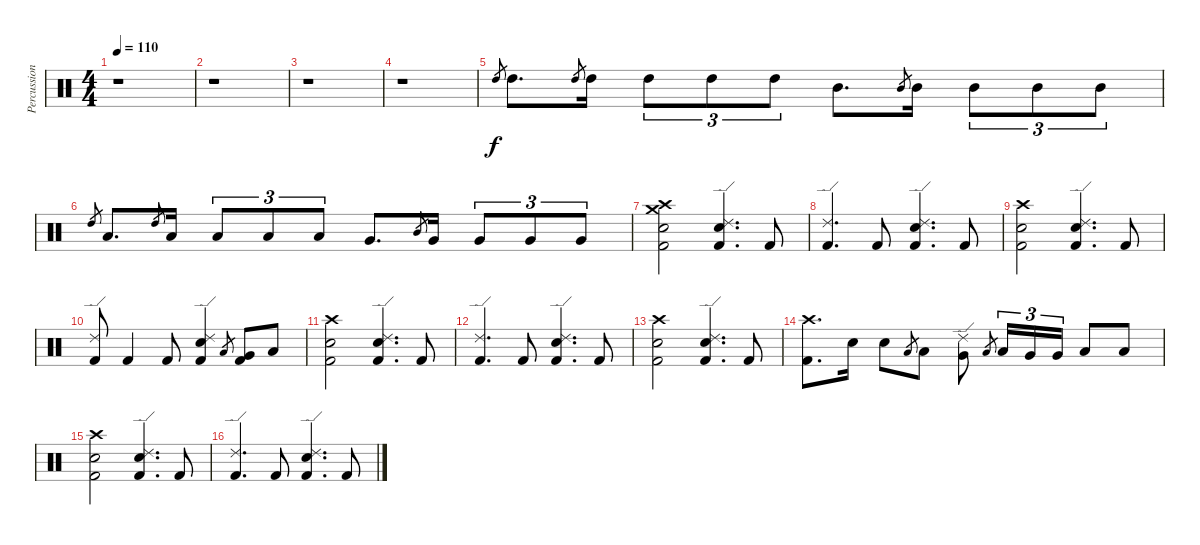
\track ("Percussion" "Percussion") {instrument percussion}
\staff {score}
\articulation defaults
\ts (4 4)
\tempo 110
\clef neutral
\ks c
r.1{dy f} |
r.1 |
r.1 |
r.1 |
"High Tom (hit)".8{gr} "High Tom (hit)".8{d} "High Tom (hit)".8{gr} "High Tom (hit)".16 "High Tom (hit)".8{tu (3 2)} "High Tom (hit)".8{tu (3 2)} "High Tom (hit)".8{tu (3 2)} "Mid Tom (hit)".8{d} "Mid Tom (hit)".8{gr} "Mid Tom (hit)".16 "Mid Tom (hit)".8{tu (3 2)} "Mid Tom (hit)".8{tu (3 2)} "Mid Tom (hit)".8{tu (3 2)} |
"High Tom (hit)".8{gr} "Low Tom (hit)".8{d} "High Tom (hit)".8{gr} "Low Tom (hit)".16 "Low Tom (hit)".8{tu (3 2)} "Low Tom (hit)".8{tu (3 2)} "Low Tom (hit)".8{tu (3 2)} "Very Low Tom (hit)".8{d} "Mid Tom (hit)".8{gr} "Very Low Tom (hit)".16 "Very Low Tom (hit)".8{tu (3 2)} "Very Low Tom (hit)".8{tu (3 2)} "Very Low Tom (hit)".8{tu (3 2)} |
("Crash high (hit)" "Crash medium (hit)" "Snare (hit) 2" "Kick (hit) 2").2 ("Ride (edge) 2" "Electric Snare (hit)" "Kick (hit) 2").4{d} "Kick (hit) 2".8 |
("Ride (edge) 2" "Kick (hit) 2").4{d} "Kick (hit) 2".8 ("Ride (edge) 2" "Electric Snare (hit)" "Kick (hit) 2").4{d} "Kick (hit) 2".8 |
("Crash high (hit)" "Snare (hit) 2" "Kick (hit) 2").2 ("Ride (edge) 2" "Electric Snare (hit)" "Kick (hit) 2").4{d} "Kick (hit) 2".8 |
("Ride (edge) 2" "Kick (hit) 2").8 "Kick (hit) 2".4 "Kick (hit) 2".8 ("Ride (edge) 2" "Electric Snare (hit)" "Kick (hit) 2").4 "Low Tom (hit)".8{gr} ("Very Low Tom (hit)" "Kick (hit) 2").8 "Low Floor Tom (hit)".8 |
("Crash high (hit)" "Snare (hit) 2" "Kick (hit) 2").2 ("Ride (edge) 2" "Electric Snare (hit)" "Kick (hit) 2").4{d} "Kick (hit) 2".8 |
("Ride (edge) 2" "Kick (hit) 2").4{d} "Kick (hit) 2".8 ("Ride (edge) 2" "Electric Snare (hit)" "Kick (hit) 2").4{d} "Kick (hit) 2".8 |
("Crash high (hit)" "Snare (hit) 2" "Kick (hit) 2").2 ("Ride (edge) 2" "Electric Snare (hit)" "Kick (hit) 2").4{d} "Kick (hit) 2".8 |
("Crash high (hit)" "Kick (hit) 2").8{d} "Electric Snare (hit)".16 "Electric Snare (hit)".8 "Low Tom (hit)".8{gr} "Low Tom (hit)".8 ("Ride (edge) 2" "Very Low Tom (hit)").8 "Low Tom (hit)".8{gr} "Low Tom (hit)".16{tu (3 2)} "Very Low Tom (hit)".16{tu (3 2)} "Very Low Tom (hit)".16{tu (3 2)} "Low Floor Tom (hit)".8 "Low Floor Tom (hit)".8 |
("Crash high (hit)" "Snare (hit) 2" "Kick (hit) 2").2 ("Ride (edge) 2" "Electric Snare (hit)" "Kick (hit) 2").4{d} "Kick (hit) 2".8 |
("Ride (edge) 2" "Kick (hit) 2").4{d} "Kick (hit) 2".8 ("Ride (edge) 2" "Electric Snare (hit)" "Kick (hit) 2").4{d} "Kick (hit) 2".8
